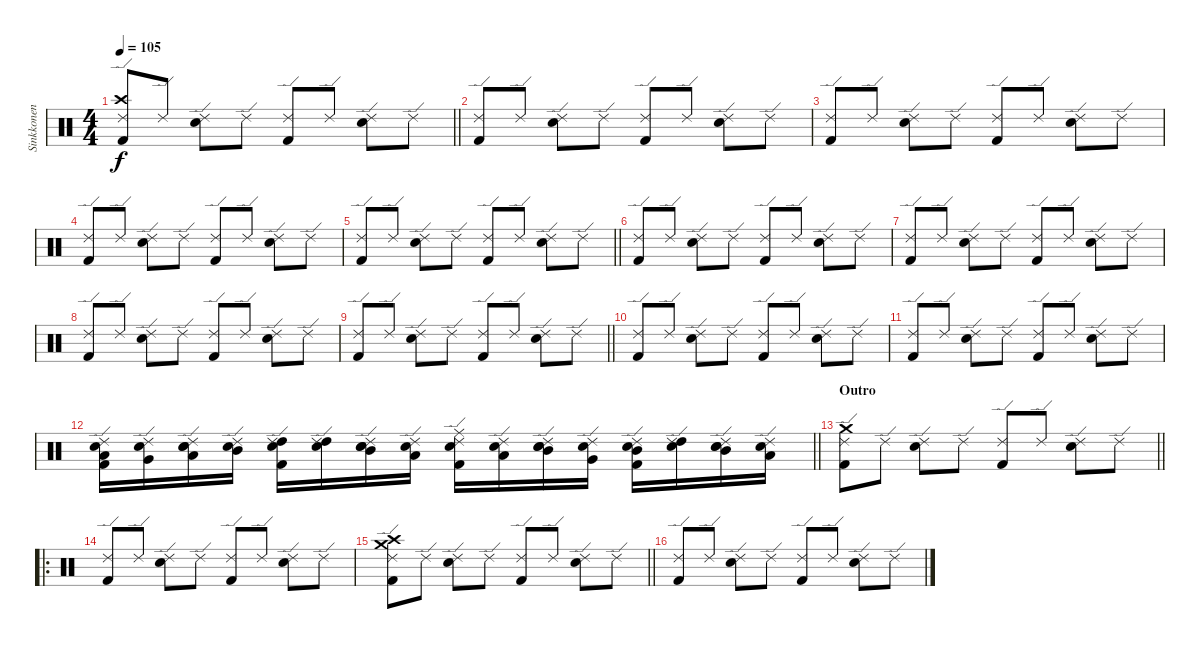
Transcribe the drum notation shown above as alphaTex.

\track ("Sinkkonen" "Sinkkonen") {instrument percussion}
\staff {score}
\articulation defaults
\ts (4 4)
\tempo 105
\clef neutral
\barLineRight lightlight
\ks c
("Ride (edge) 2" "Crash high (hit)" "Kick (hit) 2").8{dy f} "Ride (edge) 2".8 ("Ride (edge) 2" "Electric Snare (hit)").8 "Ride (edge) 2".8 ("Ride (edge) 2" "Kick (hit) 2").8 "Ride (edge) 2".8 ("Ride (edge) 2" "Electric Snare (hit)").8 "Ride (edge) 2".8 |
("Ride (edge) 2" "Kick (hit) 2").8 "Ride (edge) 2".8 ("Ride (edge) 2" "Electric Snare (hit)").8 "Ride (edge) 2".8 ("Ride (edge) 2" "Kick (hit) 2").8 "Ride (edge) 2".8 ("Ride (edge) 2" "Electric Snare (hit)").8 "Ride (edge) 2".8 |
("Ride (edge) 2" "Kick (hit) 2").8 "Ride (edge) 2".8 ("Ride (edge) 2" "Electric Snare (hit)").8 "Ride (edge) 2".8 ("Ride (edge) 2" "Kick (hit) 2").8 "Ride (edge) 2".8 ("Ride (edge) 2" "Electric Snare (hit)").8 "Ride (edge) 2".8 |
("Ride (edge) 2" "Kick (hit) 2").8 "Ride (edge) 2".8 ("Ride (edge) 2" "Electric Snare (hit)").8 "Ride (edge) 2".8 ("Ride (edge) 2" "Kick (hit) 2").8 "Ride (edge) 2".8 ("Ride (edge) 2" "Electric Snare (hit)").8 "Ride (edge) 2".8 |
\barLineRight lightlight
("Ride (edge) 2" "Kick (hit) 2").8 "Ride (edge) 2".8 ("Ride (edge) 2" "Electric Snare (hit)").8 "Ride (edge) 2".8 ("Ride (edge) 2" "Kick (hit) 2").8 "Ride (edge) 2".8 ("Ride (edge) 2" "Electric Snare (hit)").8 "Ride (edge) 2".8 |
("Ride (edge) 2" "Kick (hit) 2").8 "Ride (edge) 2".8 ("Ride (edge) 2" "Electric Snare (hit)").8 "Ride (edge) 2".8 ("Ride (edge) 2" "Kick (hit) 2").8 "Ride (edge) 2".8 ("Ride (edge) 2" "Electric Snare (hit)").8 "Ride (edge) 2".8 |
("Ride (edge) 2" "Kick (hit) 2").8 "Ride (edge) 2".8 ("Ride (edge) 2" "Electric Snare (hit)").8 "Ride (edge) 2".8 ("Ride (edge) 2" "Kick (hit) 2").8 "Ride (edge) 2".8 ("Ride (edge) 2" "Electric Snare (hit)").8 "Ride (edge) 2".8 |
("Ride (edge) 2" "Kick (hit) 2").8 "Ride (edge) 2".8 ("Ride (edge) 2" "Electric Snare (hit)").8 "Ride (edge) 2".8 ("Ride (edge) 2" "Kick (hit) 2").8 "Ride (edge) 2".8 ("Ride (edge) 2" "Electric Snare (hit)").8 "Ride (edge) 2".8 |
\barLineRight lightlight
("Ride (edge) 2" "Kick (hit) 2").8 "Ride (edge) 2".8 ("Ride (edge) 2" "Electric Snare (hit)").8 "Ride (edge) 2".8 ("Ride (edge) 2" "Kick (hit) 2").8 "Ride (edge) 2".8 ("Ride (edge) 2" "Electric Snare (hit)").8 "Ride (edge) 2".8 |
("Ride (edge) 2" "Kick (hit) 2").8 "Ride (edge) 2".8 ("Ride (edge) 2" "Electric Snare (hit)").8 "Ride (edge) 2".8 ("Ride (edge) 2" "Kick (hit) 2").8 "Ride (edge) 2".8 ("Ride (edge) 2" "Electric Snare (hit)").8 "Ride (edge) 2".8 |
("Ride (edge) 2" "Kick (hit) 2").8 "Ride (edge) 2".8 ("Ride (edge) 2" "Electric Snare (hit)").8 "Ride (edge) 2".8 ("Ride (edge) 2" "Kick (hit) 2").8 "Ride (edge) 2".8 ("Ride (edge) 2" "Electric Snare (hit)").8 "Ride (edge) 2".8 |
\barLineRight lightlight
("Low Floor Tom (hit)" "Electric Snare (hit)" "Ride (edge) 2" "Kick (hit) 2").16 ("Very Low Tom (hit)" "Electric Snare (hit)" "Ride (edge) 2").16 ("Low Tom (hit)" "Electric Snare (hit)" "Ride (edge) 2" "Electric Snare (hit)").16 ("Mid Tom (hit)" "Electric Snare (hit)" "Ride (edge) 2").16 ("High Tom (hit)" "Electric Snare (hit)" "Ride (edge) 2" "Kick (hit) 2").16 ("High Tom (hit)" "Electric Snare (hit)" "Ride (edge) 2").16 ("Mid Tom (hit)" "Electric Snare (hit)" "Ride (edge) 2" "Electric Snare (hit)").16 ("Low Floor Tom (hit)" "Electric Snare (hit)" "Ride (edge) 2").16 ("Ride (middle)" "Electric Snare (hit)" "Ride (edge) 2" "Kick (hit) 2").16 ("Low Tom (hit)" "Electric Snare (hit)" "Ride (edge) 2").16 ("Mid Tom (hit)" "Electric Snare (hit)" "Ride (edge) 2" "Electric Snare (hit)").16 ("Very Low Tom (hit)" "Electric Snare (hit)" "Ride (edge) 2").16 ("Mid Tom (hit)" "Electric Snare (hit)" "Ride (edge) 2" "Kick (hit) 2").16 ("High Tom (hit)" "Electric Snare (hit)" "Ride (edge) 2").16 ("Mid Tom (hit)" "Electric Snare (hit)" "Ride (edge) 2" "Electric Snare (hit)").16 ("Low Tom (hit)" "Electric Snare (hit)" "Ride (edge) 2").16 |
\section ("" "Outro")
\barLineRight lightlight
("Crash medium (hit)" "Ride (edge) 2" "Kick (hit) 2").8 "Ride (edge) 2".8 ("Ride (edge) 2" "Electric Snare (hit)").8 "Ride (edge) 2".8 ("Ride (edge) 2" "Kick (hit) 2").8 "Ride (edge) 2".8 ("Ride (edge) 2" "Electric Snare (hit)").8 "Ride (edge) 2".8 |
\ro
\section ("" "")
("Ride (edge) 2" "Kick (hit) 2").8 "Ride (edge) 2".8 ("Ride (edge) 2" "Electric Snare (hit)").8 "Ride (edge) 2".8 ("Ride (edge) 2" "Kick (hit) 2").8 "Ride (edge) 2".8 ("Ride (edge) 2" "Electric Snare (hit)").8 "Ride (edge) 2".8 |
\barLineRight lightlight
("Crash high (hit)" "Ride (edge) 2" "Crash medium (hit)" "Kick (hit) 2").8 "Ride (edge) 2".8 ("Ride (edge) 2" "Electric Snare (hit)").8 "Ride (edge) 2".8 ("Ride (edge) 2" "Kick (hit) 2").8 "Ride (edge) 2".8 ("Ride (edge) 2" "Electric Snare (hit)").8 "Ride (edge) 2".8 |
("Ride (edge) 2" "Kick (hit) 2").8 "Ride (edge) 2".8 ("Ride (edge) 2" "Electric Snare (hit)").8 "Ride (edge) 2".8 ("Ride (edge) 2" "Kick (hit) 2").8 "Ride (edge) 2".8 ("Ride (edge) 2" "Electric Snare (hit)").8 "Ride (edge) 2".8
